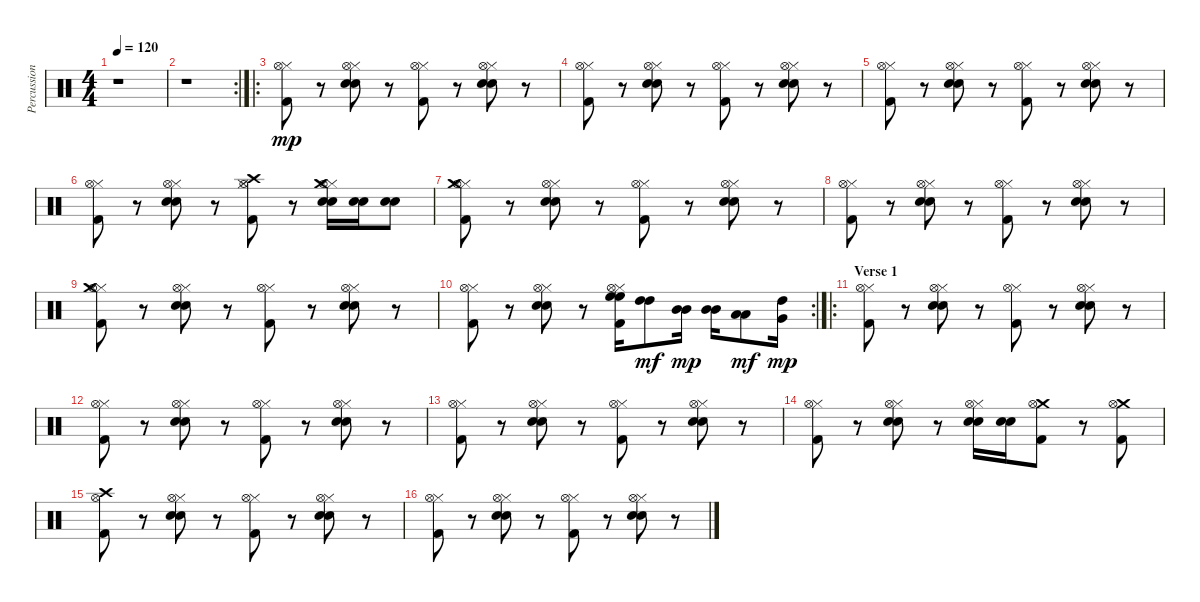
\track ("Percussion" "Percussion") {instrument percussion}
\staff {score}
\articulation defaults
\ts (4 4)
\tempo 120
\clef neutral
\ks c
r.1{dy p} |
\rc 2
r.1 |
\ro
("Hi-Hat (closed)" "Hi-Hat (open)" "Kick (hit) 2").8{dy mp} r.8 ("Hi-Hat (closed)" "Hi-Hat (open)" "Electric Snare (hit)" "Snare (hit) 2").8 r.8 ("Hi-Hat (closed)" "Hi-Hat (open)" "Kick (hit) 2").8 r.8 ("Hi-Hat (closed)" "Hi-Hat (open)" "Electric Snare (hit)" "Snare (hit) 2").8 r.8 |
("Hi-Hat (closed)" "Hi-Hat (open)" "Kick (hit) 2").8 r.8 ("Hi-Hat (closed)" "Hi-Hat (open)" "Electric Snare (hit)" "Snare (hit) 2").8 r.8 ("Hi-Hat (closed)" "Hi-Hat (open)" "Kick (hit) 2").8 r.8 ("Hi-Hat (closed)" "Hi-Hat (open)" "Electric Snare (hit)" "Snare (hit) 2").8 r.8 |
("Hi-Hat (closed)" "Hi-Hat (open)" "Kick (hit) 2").8 r.8 ("Hi-Hat (closed)" "Hi-Hat (open)" "Electric Snare (hit)" "Snare (hit) 2").8 r.8 ("Hi-Hat (closed)" "Hi-Hat (open)" "Kick (hit) 2").8 r.8 ("Hi-Hat (closed)" "Hi-Hat (open)" "Electric Snare (hit)" "Snare (hit) 2").8 r.8 |
("Hi-Hat (closed)" "Hi-Hat (open)" "Kick (hit) 2").8 r.8 ("Hi-Hat (closed)" "Hi-Hat (open)" "Electric Snare (hit)" "Snare (hit) 2").8 r.8 ("Hi-Hat (closed)" "Hi-Hat (open)" "Crash high (hit)" "Kick (hit) 2").8 r.8 ("Hi-Hat (closed)" "Hi-Hat (open)" "Crash medium (hit)" "Electric Snare (hit)" "Snare (hit) 2").16 ("Electric Snare (hit)" "Snare (hit) 2").16 ("Electric Snare (hit)" "Snare (hit) 2").8 |
("Hi-Hat (closed)" "Hi-Hat (open)" "Crash medium (hit)" "Kick (hit) 2").8 r.8 ("Hi-Hat (closed)" "Hi-Hat (open)" "Electric Snare (hit)" "Snare (hit) 2").8 r.8 ("Hi-Hat (closed)" "Hi-Hat (open)" "Kick (hit) 2").8 r.8 ("Hi-Hat (closed)" "Hi-Hat (open)" "Electric Snare (hit)" "Snare (hit) 2").8 r.8 |
("Hi-Hat (closed)" "Hi-Hat (open)" "Kick (hit) 2").8 r.8 ("Hi-Hat (closed)" "Hi-Hat (open)" "Electric Snare (hit)" "Snare (hit) 2").8 r.8 ("Hi-Hat (closed)" "Hi-Hat (open)" "Kick (hit) 2").8 r.8 ("Hi-Hat (closed)" "Hi-Hat (open)" "Electric Snare (hit)" "Snare (hit) 2").8 r.8 |
("Hi-Hat (closed)" "Hi-Hat (open)" "Crash medium (hit)" "Kick (hit) 2").8 r.8 ("Hi-Hat (closed)" "Hi-Hat (open)" "Electric Snare (hit)" "Snare (hit) 2").8 r.8 ("Hi-Hat (closed)" "Hi-Hat (open)" "Kick (hit) 2").8 r.8 ("Hi-Hat (closed)" "Hi-Hat (open)" "Electric Snare (hit)" "Snare (hit) 2").8 r.8 |
\rc 2
("Hi-Hat (closed)" "Hi-Hat (open)" "Kick (hit) 2").8 r.8 ("Hi-Hat (closed)" "Hi-Hat (open)" "Electric Snare (hit)" "Snare (hit) 2").8 r.8 ("Hi-Hat (closed)" "Hi-Hat (open)" "High Floor Tom (hit)" "High Floor Tom (hit)" "Kick (hit) 2").16 ("High Tom (hit)" "High Tom (hit)").8{dy mf} ("Mid Tom (hit)" "Mid Tom (hit)").16{dy mp} ("Mid Tom (hit)" "Mid Tom (hit)").16 ("Low Tom (hit)" "Low Tom (hit)").8{dy mf} ("High Tom (hit)" "Very Low Tom (hit)").16{dy mp} |
\ro
\section ("" "Verse 1")
("Hi-Hat (closed)" "Hi-Hat (open)" "Kick (hit) 2").8 r.8 ("Hi-Hat (closed)" "Hi-Hat (open)" "Electric Snare (hit)" "Snare (hit) 2").8 r.8 ("Hi-Hat (closed)" "Hi-Hat (open)" "Kick (hit) 2").8 r.8 ("Hi-Hat (closed)" "Hi-Hat (open)" "Electric Snare (hit)" "Snare (hit) 2").8 r.8 |
("Hi-Hat (closed)" "Hi-Hat (open)" "Kick (hit) 2").8 r.8 ("Hi-Hat (closed)" "Hi-Hat (open)" "Electric Snare (hit)" "Snare (hit) 2").8 r.8 ("Hi-Hat (closed)" "Hi-Hat (open)" "Kick (hit) 2").8 r.8 ("Hi-Hat (closed)" "Hi-Hat (open)" "Electric Snare (hit)" "Snare (hit) 2").8 r.8 |
("Hi-Hat (closed)" "Hi-Hat (open)" "Kick (hit) 2").8 r.8 ("Hi-Hat (closed)" "Hi-Hat (open)" "Electric Snare (hit)" "Snare (hit) 2").8 r.8 ("Hi-Hat (closed)" "Hi-Hat (open)" "Kick (hit) 2").8 r.8 ("Hi-Hat (closed)" "Hi-Hat (open)" "Electric Snare (hit)" "Snare (hit) 2").8 r.8 |
("Hi-Hat (closed)" "Hi-Hat (open)" "Kick (hit) 2").8 r.8 ("Hi-Hat (closed)" "Hi-Hat (open)" "Electric Snare (hit)" "Snare (hit) 2").8 r.8 ("Hi-Hat (closed)" "Hi-Hat (open)" "Electric Snare (hit)" "Snare (hit) 2").16 ("Electric Snare (hit)" "Snare (hit) 2").16 ("Crash medium (hit)" "Hi-Hat (open)" "Kick (hit) 2").8 r.8 ("Crash medium (hit)" "Hi-Hat (open)" "Kick (hit) 2").8 |
("Crash high (hit)" "Hi-Hat (open)" "Kick (hit) 2").8 r.8 ("Hi-Hat (closed)" "Hi-Hat (open)" "Electric Snare (hit)" "Snare (hit) 2").8 r.8 ("Hi-Hat (closed)" "Hi-Hat (open)" "Kick (hit) 2").8 r.8 ("Hi-Hat (closed)" "Hi-Hat (open)" "Electric Snare (hit)" "Snare (hit) 2").8 r.8 |
("Hi-Hat (closed)" "Hi-Hat (open)" "Kick (hit) 2").8 r.8 ("Hi-Hat (closed)" "Hi-Hat (open)" "Electric Snare (hit)" "Snare (hit) 2").8 r.8 ("Hi-Hat (closed)" "Hi-Hat (open)" "Kick (hit) 2").8 r.8 ("Hi-Hat (closed)" "Hi-Hat (open)" "Electric Snare (hit)" "Snare (hit) 2").8 r.8
